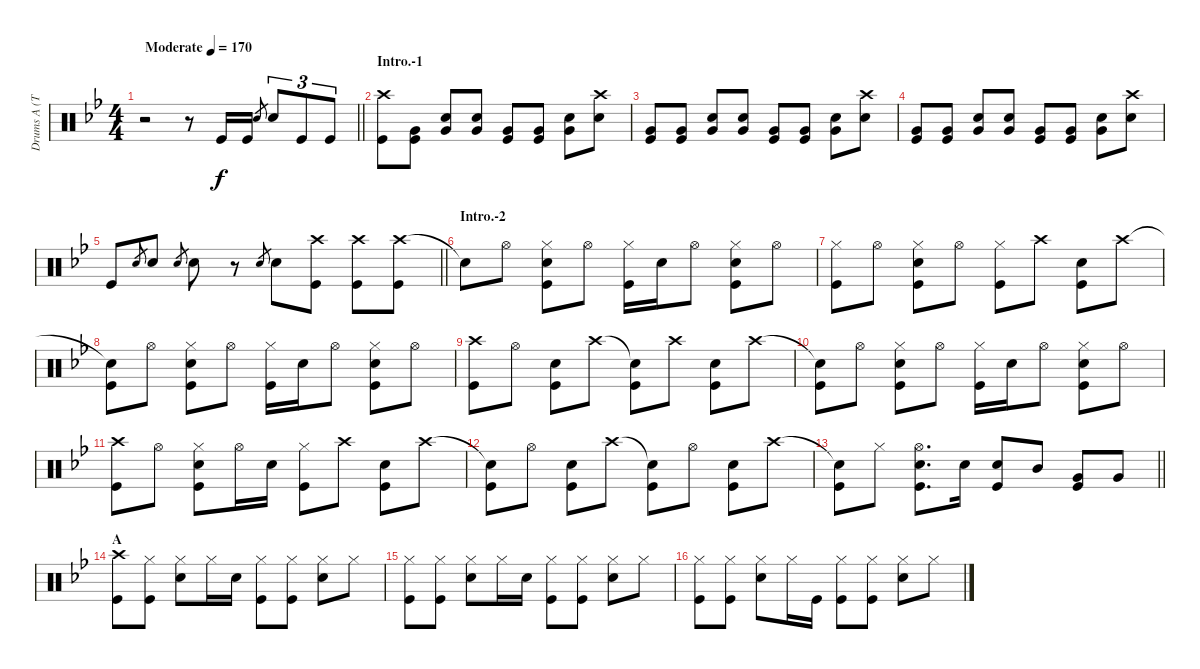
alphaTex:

\track ("Drums A (Tainaka Ritsu)" "Drums A (T") {instrument percussion}
\staff {score}
\articulation defaults
\ts (4 4)
\tempo (170 "Moderate")
\clef neutral
\barLineRight lightlight
\ks bb
r.2{dy f} r.8 "Kick (hit)".16 "Kick (hit)".16 "Snare (hit) 2".8{gr} "Snare (hit) 2".8{tu (3 2)} "Kick (hit)".8{tu (3 2)} "Kick (hit)".8{tu (3 2)} |
\section ("" "Intro.-1")
("Crash high (hit)" "Kick (hit)").8 ("Very Low Tom (hit)" "Kick (hit)").8 ("Snare (hit) 2" "Very Low Tom (hit)").8 ("Snare (hit) 2" "Very Low Tom (hit)").8 ("Very Low Tom (hit)" "Kick (hit)").8 ("Very Low Tom (hit)" "Kick (hit)").8 ("Snare (hit) 2" "Very Low Tom (hit)").8 ("Crash high (hit)" "Snare (hit) 2").8 |
("Very Low Tom (hit)" "Kick (hit)").8 ("Very Low Tom (hit)" "Kick (hit)").8 ("Snare (hit) 2" "Very Low Tom (hit)").8 ("Snare (hit) 2" "Very Low Tom (hit)").8 ("Very Low Tom (hit)" "Kick (hit)").8 ("Very Low Tom (hit)" "Kick (hit)").8 ("Snare (hit) 2" "Very Low Tom (hit)").8 ("Crash high (hit)" "Snare (hit) 2").8 |
("Very Low Tom (hit)" "Kick (hit)").8 ("Very Low Tom (hit)" "Kick (hit)").8 ("Snare (hit) 2" "Very Low Tom (hit)").8 ("Snare (hit) 2" "Very Low Tom (hit)").8 ("Very Low Tom (hit)" "Kick (hit)").8 ("Very Low Tom (hit)" "Kick (hit)").8 ("Snare (hit) 2" "Very Low Tom (hit)").8 ("Crash high (hit)" "Snare (hit) 2").8 |
\barLineRight lightlight "Kick (hit)".8 "Snare (hit) 2".8{gr} "Snare (hit) 2".8 "Snare (hit) 2".8{gr} "Snare (hit) 2".8
r.8 "Snare (hit) 2".8{gr} "Snare (hit) 2".8 ("Crash high (hit)" "Kick (hit)").8 ("Crash high (hit)" "Kick (hit)").8 ("Crash high (hit)" "Kick (hit)").8 |
\section ("" "Intro.-2")
"Snare (hit)"{t}.8 "Hi-Hat (open)".8 ("Hi-Hat (closed)" "Snare (hit) 2" "Kick (hit)").8 "Hi-Hat (open)".8 ("Hi-Hat (closed)" "Kick (hit)").16 "Snare (hit) 2".16 "Hi-Hat (open)".8 ("Hi-Hat (closed)" "Snare (hit) 2" "Kick (hit)").8 "Hi-Hat (open)".8 |
("Hi-Hat (closed)" "Kick (hit)").8 "Hi-Hat (open)".8 ("Hi-Hat (closed)" "Snare (hit) 2" "Kick (hit)").8 "Hi-Hat (open)".8 ("Hi-Hat (closed)" "Kick (hit)").8 "Crash high (hit)".8 ("Snare (hit) 2" "Kick (hit)").8 "Crash high (hit)".8 |
("Snare (hit)"{t} "Kick (hit)").8 "Hi-Hat (open)".8 ("Hi-Hat (closed)" "Snare (hit) 2" "Kick (hit)").8 "Hi-Hat (open)".8 ("Hi-Hat (closed)" "Kick (hit)").16 "Snare (hit) 2".16 "Hi-Hat (open)".8 ("Hi-Hat (closed)" "Snare (hit) 2" "Kick (hit)").8 "Hi-Hat (open)".8 |
("Crash high (hit)" "Kick (hit)").8 "Hi-Hat (open)".8 ("Snare (hit) 2" "Kick (hit)").8 "Crash high (hit)".8 ("Snare (hit)"{t} "Kick (hit)").8 "Crash high (hit)".8 ("Snare (hit) 2" "Kick (hit)").8 "Crash high (hit)".8 |
("Snare (hit)"{t} "Kick (hit)").8 "Hi-Hat (open)".8 ("Hi-Hat (closed)" "Snare (hit) 2" "Kick (hit)").8 "Hi-Hat (open)".8 ("Hi-Hat (closed)" "Kick (hit)").16 "Snare (hit) 2".16 "Hi-Hat (open)".8 ("Hi-Hat (closed)" "Snare (hit) 2" "Kick (hit)").8 "Hi-Hat (open)".8 |
("Crash high (hit)" "Kick (hit)").8 "Hi-Hat (open)".8 ("Hi-Hat (closed)" "Snare (hit) 2" "Kick (hit)").8 "Hi-Hat (open)".16 "Snare (hit) 2".16 ("Hi-Hat (closed)" "Kick (hit)").8 "Crash high (hit)".8 ("Snare (hit) 2" "Kick (hit)").8 "Crash high (hit)".8 |
("Snare (hit)"{t} "Kick (hit)").8 "Hi-Hat (open)".8 ("Snare (hit) 2" "Kick (hit)").8 "Crash high (hit)".8 ("Snare (hit)"{t} "Kick (hit)").8 "Hi-Hat (open)".8 ("Snare (hit) 2" "Kick (hit)").8 "Crash high (hit)".8 |
\barLineRight lightlight
("Snare (hit)"{t} "Kick (hit)").8 "Hi-Hat (closed)".8 ("Hi-Hat (open)" "Snare (hit) 2" "Kick (hit)").8{d} "Snare (hit) 2".16 ("Snare (hit) 2" "Kick (hit)").8 "Mid Tom (hit)".8 ("Very Low Tom (hit)" "Kick (hit)").8 "Very Low Tom (hit)".8 |
\section ("" "A")
("Crash high (hit)" "Kick (hit)").8 ("Hi-Hat (closed)" "Kick (hit)").8 ("Hi-Hat (closed)" "Snare (hit) 2").8 "Hi-Hat (closed)".16 "Snare (hit) 2".16 ("Hi-Hat (closed)" "Kick (hit)").8 ("Hi-Hat (closed)" "Kick (hit)").8 ("Hi-Hat (closed)" "Snare (hit) 2").8 "Hi-Hat (closed)".8 |
("Hi-Hat (closed)" "Kick (hit)").8 ("Hi-Hat (closed)" "Kick (hit)").8 ("Hi-Hat (closed)" "Snare (hit) 2").8 "Hi-Hat (closed)".16 "Snare (hit) 2".16 ("Hi-Hat (closed)" "Kick (hit)").8 ("Hi-Hat (closed)" "Kick (hit)").8 ("Hi-Hat (closed)" "Snare (hit) 2").8 "Hi-Hat (closed)".8 |
("Hi-Hat (closed)" "Kick (hit)").8 ("Hi-Hat (closed)" "Kick (hit)").8 ("Hi-Hat (closed)" "Snare (hit) 2").8 "Hi-Hat (closed)".16 "Kick (hit)".16 ("Hi-Hat (closed)" "Kick (hit)").8 ("Hi-Hat (closed)" "Kick (hit)").8 ("Hi-Hat (closed)" "Snare (hit) 2").8 "Hi-Hat (closed)".8
